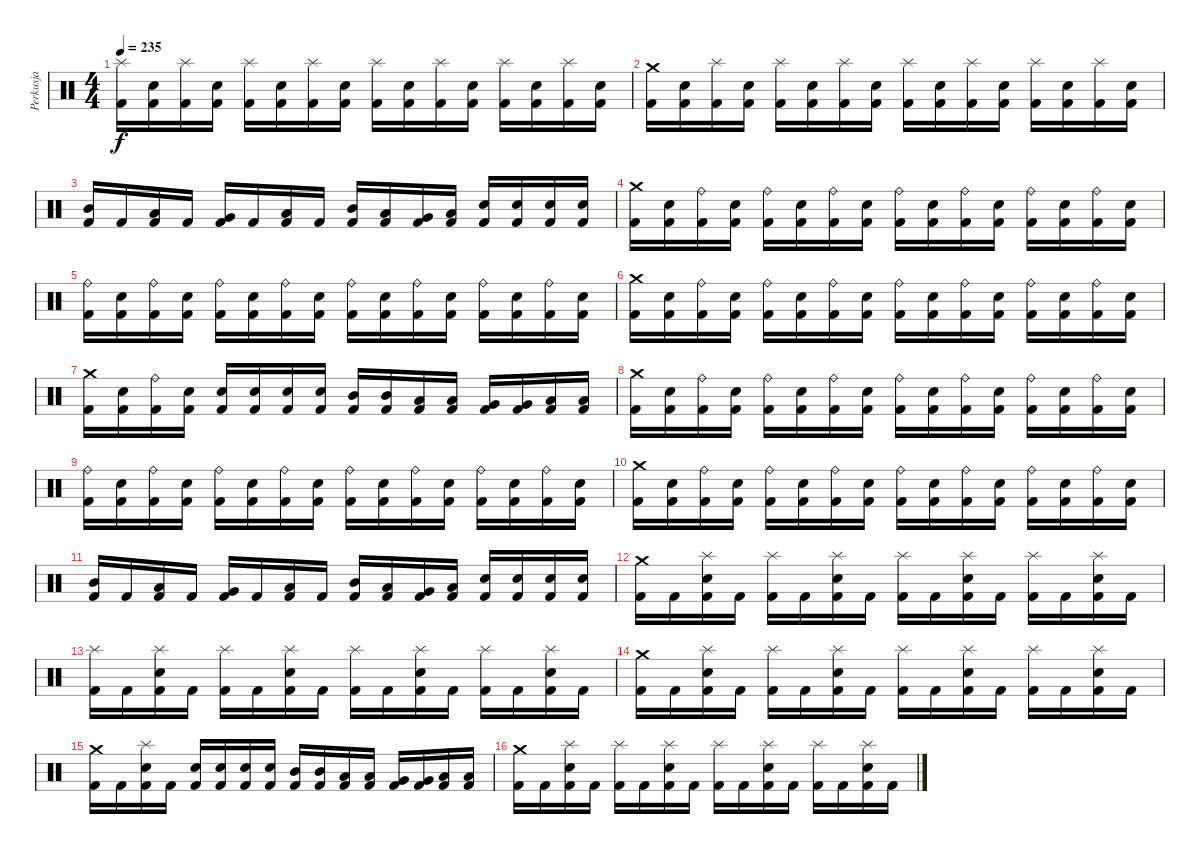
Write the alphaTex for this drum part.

\track ("Perkusja" "Perkusja") {instrument percussion}
\staff {score}
\articulation defaults
\ts (4 4)
\tempo 235
\clef neutral
\ks c
("Splash (hit)" "Kick (hit) 2").16{dy f} ("Snare (hit) 2" "Kick (hit) 2").16 ("Splash (hit)" "Kick (hit) 2").16 ("Snare (hit) 2" "Kick (hit) 2").16 ("Splash (hit)" "Kick (hit) 2").16 ("Snare (hit) 2" "Kick (hit) 2").16 ("Splash (hit)" "Kick (hit) 2").16 ("Snare (hit) 2" "Kick (hit) 2").16 ("Splash (hit)" "Kick (hit) 2").16 ("Snare (hit) 2" "Kick (hit) 2").16 ("Splash (hit)" "Kick (hit) 2").16 ("Snare (hit) 2" "Kick (hit) 2").16 ("Splash (hit)" "Kick (hit) 2").16 ("Snare (hit) 2" "Kick (hit) 2").16 ("Splash (hit)" "Kick (hit) 2").16 ("Snare (hit) 2" "Kick (hit) 2").16 |
("Crash medium (hit)" "Kick (hit) 2").16 ("Snare (hit) 2" "Kick (hit) 2").16 ("Splash (hit)" "Kick (hit) 2").16 ("Snare (hit) 2" "Kick (hit) 2").16 ("Splash (hit)" "Kick (hit) 2").16 ("Snare (hit) 2" "Kick (hit) 2").16 ("Splash (hit)" "Kick (hit) 2").16 ("Snare (hit) 2" "Kick (hit) 2").16 ("Splash (hit)" "Kick (hit) 2").16 ("Snare (hit) 2" "Kick (hit) 2").16 ("Splash (hit)" "Kick (hit) 2").16 ("Snare (hit) 2" "Kick (hit) 2").16 ("Splash (hit)" "Kick (hit) 2").16 ("Snare (hit) 2" "Kick (hit) 2").16 ("Splash (hit)" "Kick (hit) 2").16 ("Snare (hit) 2" "Kick (hit) 2").16 |
("Mid Tom (hit)" "Kick (hit) 2").16 "Kick (hit) 2".16 ("Low Tom (hit)" "Kick (hit) 2").16 "Kick (hit) 2".16 ("Very Low Tom (hit)" "Kick (hit) 2").16 "Kick (hit) 2".16 ("Low Floor Tom (hit)" "Kick (hit) 2").16 "Kick (hit) 2".16 ("Mid Tom (hit)" "Kick (hit) 2").16 ("Low Tom (hit)" "Kick (hit) 2").16 ("Very Low Tom (hit)" "Kick (hit) 2").16 ("Low Floor Tom (hit)" "Kick (hit) 2").16 ("Snare (hit) 2" "Kick (hit) 2").16 ("Snare (hit) 2" "Kick (hit) 2").16 ("Snare (hit) 2" "Kick (hit) 2").16 ("Snare (hit) 2" "Kick (hit) 2").16 |
("Crash medium (hit)" "Kick (hit) 2").16 ("Snare (hit) 2" "Kick (hit) 2").16 ("Ride (bell)" "Kick (hit) 2").16 ("Snare (hit) 2" "Kick (hit) 2").16 ("Ride (bell)" "Kick (hit) 2").16 ("Snare (hit) 2" "Kick (hit) 2").16 ("Ride (bell)" "Kick (hit) 2").16 ("Snare (hit) 2" "Kick (hit) 2").16 ("Ride (bell)" "Kick (hit) 2").16 ("Snare (hit) 2" "Kick (hit) 2").16 ("Ride (bell)" "Kick (hit) 2").16 ("Snare (hit) 2" "Kick (hit) 2").16 ("Ride (bell)" "Kick (hit) 2").16 ("Snare (hit) 2" "Kick (hit) 2").16 ("Ride (bell)" "Kick (hit) 2").16 ("Snare (hit) 2" "Kick (hit) 2").16 |
("Ride (bell)" "Kick (hit) 2").16 ("Snare (hit) 2" "Kick (hit) 2").16 ("Ride (bell)" "Kick (hit) 2").16 ("Snare (hit) 2" "Kick (hit) 2").16 ("Ride (bell)" "Kick (hit) 2").16 ("Snare (hit) 2" "Kick (hit) 2").16 ("Ride (bell)" "Kick (hit) 2").16 ("Snare (hit) 2" "Kick (hit) 2").16 ("Ride (bell)" "Kick (hit) 2").16 ("Snare (hit) 2" "Kick (hit) 2").16 ("Ride (bell)" "Kick (hit) 2").16 ("Snare (hit) 2" "Kick (hit) 2").16 ("Ride (bell)" "Kick (hit) 2").16 ("Snare (hit) 2" "Kick (hit) 2").16 ("Ride (bell)" "Kick (hit) 2").16 ("Snare (hit) 2" "Kick (hit) 2").16 |
("Crash medium (hit)" "Kick (hit) 2").16 ("Snare (hit) 2" "Kick (hit) 2").16 ("Ride (bell)" "Kick (hit) 2").16 ("Snare (hit) 2" "Kick (hit) 2").16 ("Ride (bell)" "Kick (hit) 2").16 ("Snare (hit) 2" "Kick (hit) 2").16 ("Ride (bell)" "Kick (hit) 2").16 ("Snare (hit) 2" "Kick (hit) 2").16 ("Ride (bell)" "Kick (hit) 2").16 ("Snare (hit) 2" "Kick (hit) 2").16 ("Ride (bell)" "Kick (hit) 2").16 ("Snare (hit) 2" "Kick (hit) 2").16 ("Ride (bell)" "Kick (hit) 2").16 ("Snare (hit) 2" "Kick (hit) 2").16 ("Ride (bell)" "Kick (hit) 2").16 ("Snare (hit) 2" "Kick (hit) 2").16 |
("Crash medium (hit)" "Kick (hit) 2").16 ("Snare (hit) 2" "Kick (hit) 2").16 ("Ride (bell)" "Kick (hit) 2").16 ("Snare (hit) 2" "Kick (hit) 2").16 ("Electric Snare (hit)" "Kick (hit) 2").16 ("Electric Snare (hit)" "Kick (hit) 2").16 ("Electric Snare (hit)" "Kick (hit) 2").16 ("Electric Snare (hit)" "Kick (hit) 2").16 ("Mid Tom (hit)" "Kick (hit) 2").16 ("Mid Tom (hit)" "Kick (hit) 2").16 ("Low Tom (hit)" "Kick (hit) 2").16 ("Low Tom (hit)" "Kick (hit) 2").16 ("Very Low Tom (hit)" "Kick (hit) 2").16 ("Very Low Tom (hit)" "Kick (hit) 2").16 ("Low Floor Tom (hit)" "Kick (hit) 2").16 ("Low Floor Tom (hit)" "Kick (hit) 2").16 |
("Crash medium (hit)" "Kick (hit) 2").16 ("Snare (hit) 2" "Kick (hit) 2").16 ("Ride (bell)" "Kick (hit) 2").16 ("Snare (hit) 2" "Kick (hit) 2").16 ("Ride (bell)" "Kick (hit) 2").16 ("Snare (hit) 2" "Kick (hit) 2").16 ("Ride (bell)" "Kick (hit) 2").16 ("Snare (hit) 2" "Kick (hit) 2").16 ("Ride (bell)" "Kick (hit) 2").16 ("Snare (hit) 2" "Kick (hit) 2").16 ("Ride (bell)" "Kick (hit) 2").16 ("Snare (hit) 2" "Kick (hit) 2").16 ("Ride (bell)" "Kick (hit) 2").16 ("Snare (hit) 2" "Kick (hit) 2").16 ("Ride (bell)" "Kick (hit) 2").16 ("Snare (hit) 2" "Kick (hit) 2").16 |
("Ride (bell)" "Kick (hit) 2").16 ("Snare (hit) 2" "Kick (hit) 2").16 ("Ride (bell)" "Kick (hit) 2").16 ("Snare (hit) 2" "Kick (hit) 2").16 ("Ride (bell)" "Kick (hit) 2").16 ("Snare (hit) 2" "Kick (hit) 2").16 ("Ride (bell)" "Kick (hit) 2").16 ("Snare (hit) 2" "Kick (hit) 2").16 ("Ride (bell)" "Kick (hit) 2").16 ("Snare (hit) 2" "Kick (hit) 2").16 ("Ride (bell)" "Kick (hit) 2").16 ("Snare (hit) 2" "Kick (hit) 2").16 ("Ride (bell)" "Kick (hit) 2").16 ("Snare (hit) 2" "Kick (hit) 2").16 ("Ride (bell)" "Kick (hit) 2").16 ("Snare (hit) 2" "Kick (hit) 2").16 |
("Crash medium (hit)" "Kick (hit) 2").16 ("Snare (hit) 2" "Kick (hit) 2").16 ("Ride (bell)" "Kick (hit) 2").16 ("Snare (hit) 2" "Kick (hit) 2").16 ("Ride (bell)" "Kick (hit) 2").16 ("Snare (hit) 2" "Kick (hit) 2").16 ("Ride (bell)" "Kick (hit) 2").16 ("Snare (hit) 2" "Kick (hit) 2").16 ("Ride (bell)" "Kick (hit) 2").16 ("Snare (hit) 2" "Kick (hit) 2").16 ("Ride (bell)" "Kick (hit) 2").16 ("Snare (hit) 2" "Kick (hit) 2").16 ("Ride (bell)" "Kick (hit) 2").16 ("Snare (hit) 2" "Kick (hit) 2").16 ("Ride (bell)" "Kick (hit) 2").16 ("Snare (hit) 2" "Kick (hit) 2").16 |
("Mid Tom (hit)" "Kick (hit) 2").16 "Kick (hit) 2".16 ("Low Tom (hit)" "Kick (hit) 2").16 "Kick (hit) 2".16 ("Very Low Tom (hit)" "Kick (hit) 2").16 "Kick (hit) 2".16 ("Low Floor Tom (hit)" "Kick (hit) 2").16 "Kick (hit) 2".16 ("Mid Tom (hit)" "Kick (hit) 2").16 ("Low Tom (hit)" "Kick (hit) 2").16 ("Very Low Tom (hit)" "Kick (hit) 2").16 ("Low Floor Tom (hit)" "Kick (hit) 2").16 ("Snare (hit) 2" "Kick (hit) 2").16 ("Snare (hit) 2" "Kick (hit) 2").16 ("Snare (hit) 2" "Kick (hit) 2").16 ("Snare (hit) 2" "Kick (hit) 2").16 |
("Crash medium (hit)" "Kick (hit) 2").16 "Kick (hit) 2".16 ("Splash (hit)" "Snare (hit) 2" "Kick (hit) 2").16 "Kick (hit) 2".16 ("Splash (hit)" "Kick (hit) 2").16 "Kick (hit) 2".16 ("Splash (hit)" "Snare (hit) 2" "Kick (hit) 2").16 "Kick (hit) 2".16 ("Splash (hit)" "Kick (hit) 2").16 "Kick (hit) 2".16 ("Splash (hit)" "Snare (hit) 2" "Kick (hit) 2").16 "Kick (hit) 2".16 ("Splash (hit)" "Kick (hit) 2").16 "Kick (hit) 2".16 ("Splash (hit)" "Snare (hit) 2" "Kick (hit) 2").16 "Kick (hit) 2".16 |
("Splash (hit)" "Kick (hit) 2").16 "Kick (hit) 2".16 ("Splash (hit)" "Snare (hit) 2" "Kick (hit) 2").16 "Kick (hit) 2".16 ("Splash (hit)" "Kick (hit) 2").16 "Kick (hit) 2".16 ("Splash (hit)" "Snare (hit) 2" "Kick (hit) 2").16 "Kick (hit) 2".16 ("Splash (hit)" "Kick (hit) 2").16 "Kick (hit) 2".16 ("Splash (hit)" "Snare (hit) 2" "Kick (hit) 2").16 "Kick (hit) 2".16 ("Splash (hit)" "Kick (hit) 2").16 "Kick (hit) 2".16 ("Splash (hit)" "Snare (hit) 2" "Kick (hit) 2").16 "Kick (hit) 2".16 |
("Crash medium (hit)" "Kick (hit) 2").16 "Kick (hit) 2".16 ("Splash (hit)" "Snare (hit) 2" "Kick (hit) 2").16 "Kick (hit) 2".16 ("Splash (hit)" "Kick (hit) 2").16 "Kick (hit) 2".16 ("Splash (hit)" "Snare (hit) 2" "Kick (hit) 2").16 "Kick (hit) 2".16 ("Splash (hit)" "Kick (hit) 2").16 "Kick (hit) 2".16 ("Splash (hit)" "Snare (hit) 2" "Kick (hit) 2").16 "Kick (hit) 2".16 ("Splash (hit)" "Kick (hit) 2").16 "Kick (hit) 2".16 ("Splash (hit)" "Snare (hit) 2" "Kick (hit) 2").16 "Kick (hit) 2".16 |
("Crash medium (hit)" "Kick (hit) 2").16 "Kick (hit) 2".16 ("Splash (hit)" "Snare (hit) 2" "Kick (hit) 2").16 "Kick (hit) 2".16 ("Electric Snare (hit)" "Kick (hit) 2").16 ("Electric Snare (hit)" "Kick (hit) 2").16 ("Electric Snare (hit)" "Kick (hit) 2").16 ("Electric Snare (hit)" "Kick (hit) 2").16 ("Mid Tom (hit)" "Kick (hit) 2").16 ("Mid Tom (hit)" "Kick (hit) 2").16 ("Low Tom (hit)" "Kick (hit) 2").16 ("Low Tom (hit)" "Kick (hit) 2").16 ("Very Low Tom (hit)" "Kick (hit) 2").16 ("Very Low Tom (hit)" "Kick (hit) 2").16 ("Low Floor Tom (hit)" "Kick (hit) 2").16 ("Low Floor Tom (hit)" "Kick (hit) 2").16 |
("Crash medium (hit)" "Kick (hit) 2").16 "Kick (hit) 2".16 ("Splash (hit)" "Snare (hit) 2" "Kick (hit) 2").16 "Kick (hit) 2".16 ("Splash (hit)" "Kick (hit) 2").16 "Kick (hit) 2".16 ("Splash (hit)" "Snare (hit) 2" "Kick (hit) 2").16 "Kick (hit) 2".16 ("Splash (hit)" "Kick (hit) 2").16 "Kick (hit) 2".16 ("Splash (hit)" "Snare (hit) 2" "Kick (hit) 2").16 "Kick (hit) 2".16 ("Splash (hit)" "Kick (hit) 2").16 "Kick (hit) 2".16 ("Splash (hit)" "Snare (hit) 2" "Kick (hit) 2").16 "Kick (hit) 2".16
